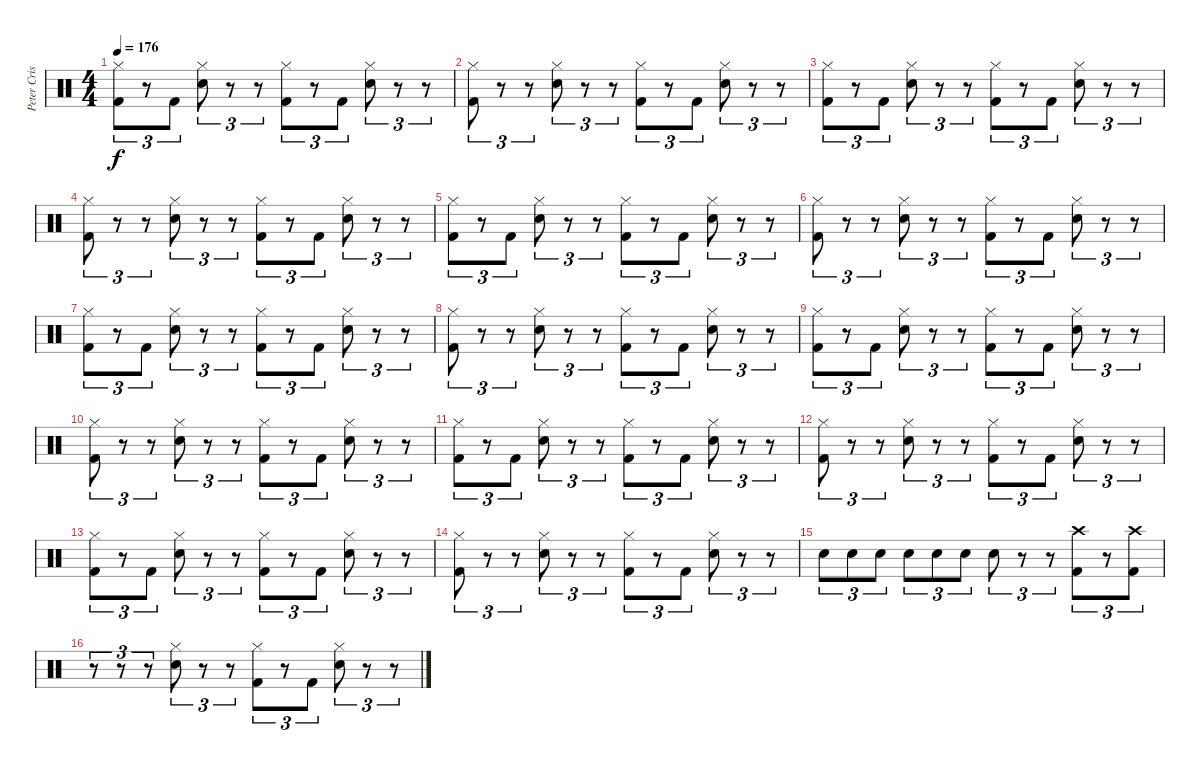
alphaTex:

\track ("Peter Criss" "Peter Cris") {instrument percussion}
\staff {score}
\articulation defaults
\ts (4 4)
\tempo 176
\clef neutral
\ks c
("Hi-Hat (closed)" "Kick (hit) 2").8{tu (3 2) dy f} r.8{tu (3 2)} "Kick (hit) 2".8{tu (3 2)} ("Hi-Hat (closed)" "Electric Snare (hit)").8{tu (3 2)} r.8{tu (3 2)} r.8{tu (3 2)} ("Hi-Hat (closed)" "Kick (hit) 2").8{tu (3 2)} r.8{tu (3 2)} "Kick (hit) 2".8{tu (3 2)} ("Hi-Hat (closed)" "Electric Snare (hit)").8{tu (3 2)} r.8{tu (3 2)} r.8{tu (3 2)} |
("Hi-Hat (closed)" "Kick (hit) 2").8{tu (3 2)} r.8{tu (3 2)} r.8{tu (3 2)} ("Hi-Hat (closed)" "Electric Snare (hit)").8{tu (3 2)} r.8{tu (3 2)} r.8{tu (3 2)} ("Hi-Hat (closed)" "Kick (hit) 2").8{tu (3 2)} r.8{tu (3 2)} "Kick (hit) 2".8{tu (3 2)} ("Hi-Hat (closed)" "Electric Snare (hit)").8{tu (3 2)} r.8{tu (3 2)} r.8{tu (3 2)} |
("Hi-Hat (closed)" "Kick (hit) 2").8{tu (3 2)} r.8{tu (3 2)} "Kick (hit) 2".8{tu (3 2)} ("Hi-Hat (closed)" "Electric Snare (hit)").8{tu (3 2)} r.8{tu (3 2)} r.8{tu (3 2)} ("Hi-Hat (closed)" "Kick (hit) 2").8{tu (3 2)} r.8{tu (3 2)} "Kick (hit) 2".8{tu (3 2)} ("Hi-Hat (closed)" "Electric Snare (hit)").8{tu (3 2)} r.8{tu (3 2)} r.8{tu (3 2)} |
("Hi-Hat (closed)" "Kick (hit) 2").8{tu (3 2)} r.8{tu (3 2)} r.8{tu (3 2)} ("Hi-Hat (closed)" "Electric Snare (hit)").8{tu (3 2)} r.8{tu (3 2)} r.8{tu (3 2)} ("Hi-Hat (closed)" "Kick (hit) 2").8{tu (3 2)} r.8{tu (3 2)} "Kick (hit) 2".8{tu (3 2)} ("Hi-Hat (closed)" "Electric Snare (hit)").8{tu (3 2)} r.8{tu (3 2)} r.8{tu (3 2)} |
("Hi-Hat (closed)" "Kick (hit) 2").8{tu (3 2)} r.8{tu (3 2)} "Kick (hit) 2".8{tu (3 2)} ("Hi-Hat (closed)" "Electric Snare (hit)").8{tu (3 2)} r.8{tu (3 2)} r.8{tu (3 2)} ("Hi-Hat (closed)" "Kick (hit) 2").8{tu (3 2)} r.8{tu (3 2)} "Kick (hit) 2".8{tu (3 2)} ("Hi-Hat (closed)" "Electric Snare (hit)").8{tu (3 2)} r.8{tu (3 2)} r.8{tu (3 2)} |
("Hi-Hat (closed)" "Kick (hit) 2").8{tu (3 2)} r.8{tu (3 2)} r.8{tu (3 2)} ("Hi-Hat (closed)" "Electric Snare (hit)").8{tu (3 2)} r.8{tu (3 2)} r.8{tu (3 2)} ("Hi-Hat (closed)" "Kick (hit) 2").8{tu (3 2)} r.8{tu (3 2)} "Kick (hit) 2".8{tu (3 2)} ("Hi-Hat (closed)" "Electric Snare (hit)").8{tu (3 2)} r.8{tu (3 2)} r.8{tu (3 2)} |
("Hi-Hat (closed)" "Kick (hit) 2").8{tu (3 2)} r.8{tu (3 2)} "Kick (hit) 2".8{tu (3 2)} ("Hi-Hat (closed)" "Electric Snare (hit)").8{tu (3 2)} r.8{tu (3 2)} r.8{tu (3 2)} ("Hi-Hat (closed)" "Kick (hit) 2").8{tu (3 2)} r.8{tu (3 2)} "Kick (hit) 2".8{tu (3 2)} ("Hi-Hat (closed)" "Electric Snare (hit)").8{tu (3 2)} r.8{tu (3 2)} r.8{tu (3 2)} |
("Hi-Hat (closed)" "Kick (hit) 2").8{tu (3 2)} r.8{tu (3 2)} r.8{tu (3 2)} ("Hi-Hat (closed)" "Electric Snare (hit)").8{tu (3 2)} r.8{tu (3 2)} r.8{tu (3 2)} ("Hi-Hat (closed)" "Kick (hit) 2").8{tu (3 2)} r.8{tu (3 2)} "Kick (hit) 2".8{tu (3 2)} ("Hi-Hat (closed)" "Electric Snare (hit)").8{tu (3 2)} r.8{tu (3 2)} r.8{tu (3 2)} |
("Hi-Hat (closed)" "Kick (hit) 2").8{tu (3 2)} r.8{tu (3 2)} "Kick (hit) 2".8{tu (3 2)} ("Hi-Hat (closed)" "Electric Snare (hit)").8{tu (3 2)} r.8{tu (3 2)} r.8{tu (3 2)} ("Hi-Hat (closed)" "Kick (hit) 2").8{tu (3 2)} r.8{tu (3 2)} "Kick (hit) 2".8{tu (3 2)} ("Hi-Hat (closed)" "Electric Snare (hit)").8{tu (3 2)} r.8{tu (3 2)} r.8{tu (3 2)} |
("Hi-Hat (closed)" "Kick (hit) 2").8{tu (3 2)} r.8{tu (3 2)} r.8{tu (3 2)} ("Hi-Hat (closed)" "Electric Snare (hit)").8{tu (3 2)} r.8{tu (3 2)} r.8{tu (3 2)} ("Hi-Hat (closed)" "Kick (hit) 2").8{tu (3 2)} r.8{tu (3 2)} "Kick (hit) 2".8{tu (3 2)} ("Hi-Hat (closed)" "Electric Snare (hit)").8{tu (3 2)} r.8{tu (3 2)} r.8{tu (3 2)} |
("Hi-Hat (closed)" "Kick (hit) 2").8{tu (3 2)} r.8{tu (3 2)} "Kick (hit) 2".8{tu (3 2)} ("Hi-Hat (closed)" "Electric Snare (hit)").8{tu (3 2)} r.8{tu (3 2)} r.8{tu (3 2)} ("Hi-Hat (closed)" "Kick (hit) 2").8{tu (3 2)} r.8{tu (3 2)} "Kick (hit) 2".8{tu (3 2)} ("Hi-Hat (closed)" "Electric Snare (hit)").8{tu (3 2)} r.8{tu (3 2)} r.8{tu (3 2)} |
("Hi-Hat (closed)" "Kick (hit) 2").8{tu (3 2)} r.8{tu (3 2)} r.8{tu (3 2)} ("Hi-Hat (closed)" "Electric Snare (hit)").8{tu (3 2)} r.8{tu (3 2)} r.8{tu (3 2)} ("Hi-Hat (closed)" "Kick (hit) 2").8{tu (3 2)} r.8{tu (3 2)} "Kick (hit) 2".8{tu (3 2)} ("Hi-Hat (closed)" "Electric Snare (hit)").8{tu (3 2)} r.8{tu (3 2)} r.8{tu (3 2)} |
("Hi-Hat (closed)" "Kick (hit) 2").8{tu (3 2)} r.8{tu (3 2)} "Kick (hit) 2".8{tu (3 2)} ("Hi-Hat (closed)" "Electric Snare (hit)").8{tu (3 2)} r.8{tu (3 2)} r.8{tu (3 2)} ("Hi-Hat (closed)" "Kick (hit) 2").8{tu (3 2)} r.8{tu (3 2)} "Kick (hit) 2".8{tu (3 2)} ("Hi-Hat (closed)" "Electric Snare (hit)").8{tu (3 2)} r.8{tu (3 2)} r.8{tu (3 2)} |
("Hi-Hat (closed)" "Kick (hit) 2").8{tu (3 2)} r.8{tu (3 2)} r.8{tu (3 2)} ("Hi-Hat (closed)" "Electric Snare (hit)").8{tu (3 2)} r.8{tu (3 2)} r.8{tu (3 2)} ("Hi-Hat (closed)" "Kick (hit) 2").8{tu (3 2)} r.8{tu (3 2)} "Kick (hit) 2".8{tu (3 2)} ("Hi-Hat (closed)" "Electric Snare (hit)").8{tu (3 2)} r.8{tu (3 2)} r.8{tu (3 2)} |
"Electric Snare (hit)".8{tu (3 2)} "Electric Snare (hit)".8{tu (3 2)} "Electric Snare (hit)".8{tu (3 2)} "Electric Snare (hit)".8{tu (3 2)} "Electric Snare (hit)".8{tu (3 2)} "Electric Snare (hit)".8{tu (3 2)} "Electric Snare (hit)".8{tu (3 2)} r.8{tu (3 2)} r.8{tu (3 2)} ("Crash high (hit)" "Kick (hit) 2").8{tu (3 2)} r.8{tu (3 2)} ("Crash high (hit)" "Kick (hit) 2").8{tu (3 2)} |
r.8{tu (3 2)} r.8{tu (3 2)} r.8{tu (3 2)} ("Hi-Hat (closed)" "Electric Snare (hit)").8{tu (3 2)} r.8{tu (3 2)} r.8{tu (3 2)} ("Hi-Hat (closed)" "Kick (hit) 2").8{tu (3 2)} r.8{tu (3 2)} "Kick (hit) 2".8{tu (3 2)} ("Hi-Hat (closed)" "Electric Snare (hit)").8{tu (3 2)} r.8{tu (3 2)} r.8{tu (3 2)}
